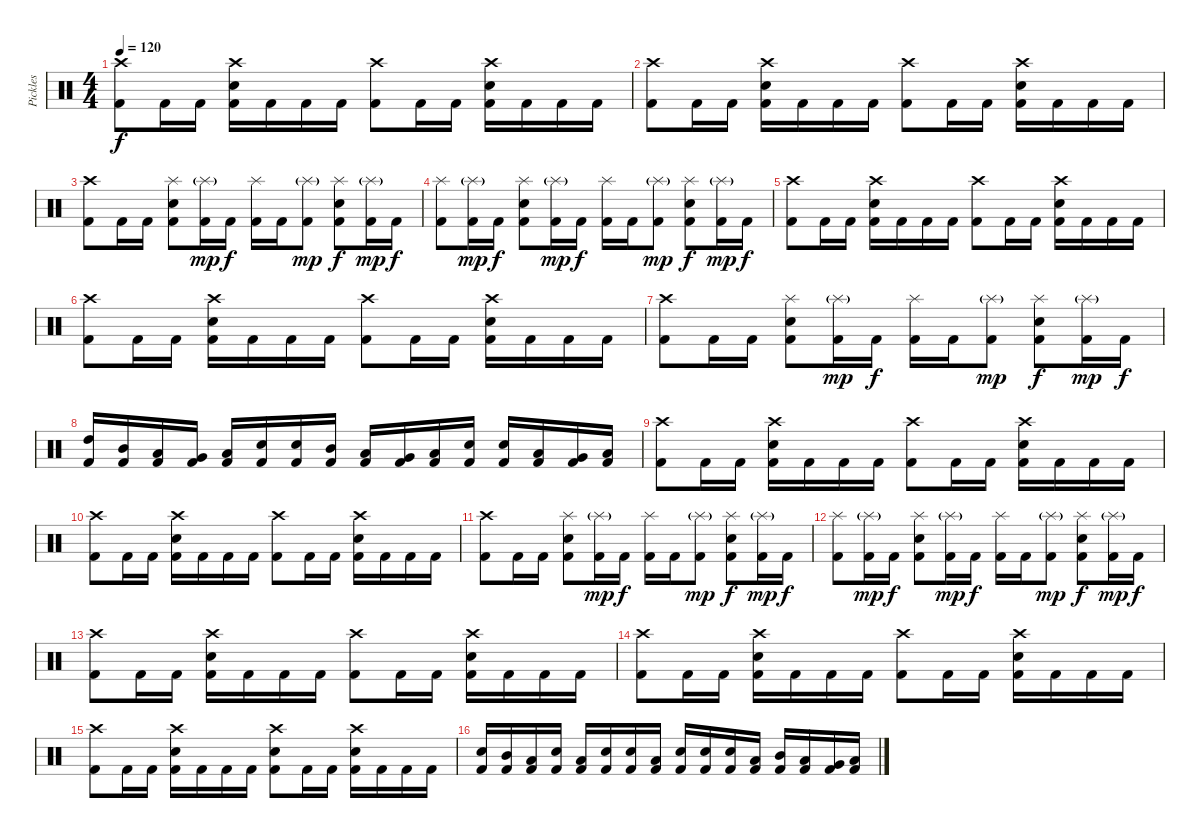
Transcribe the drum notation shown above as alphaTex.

\track ("Pickles" "Pickles") {instrument percussion}
\staff {score}
\articulation defaults
\ts (4 4)
\tempo 120
\clef neutral
\ks c
("Crash high (hit)" "Kick (hit) 2").8{dy f} "Kick (hit) 2".16 "Kick (hit) 2".16 ("Crash high (hit)" "Snare (hit) 2" "Kick (hit) 2").16 "Kick (hit) 2".16 "Kick (hit) 2".16 "Kick (hit) 2".16 ("Crash high (hit)" "Kick (hit) 2").8 "Kick (hit) 2".16 "Kick (hit) 2".16 ("Crash high (hit)" "Snare (hit) 2" "Kick (hit) 2").16 "Kick (hit) 2".16 "Kick (hit) 2".16 "Kick (hit) 2".16 |
("Crash high (hit)" "Kick (hit) 2").8 "Kick (hit) 2".16 "Kick (hit) 2".16 ("Crash high (hit)" "Snare (hit) 2" "Kick (hit) 2").16 "Kick (hit) 2".16 "Kick (hit) 2".16 "Kick (hit) 2".16 ("Crash high (hit)" "Kick (hit) 2").8 "Kick (hit) 2".16 "Kick (hit) 2".16 ("Crash high (hit)" "Snare (hit) 2" "Kick (hit) 2").16 "Kick (hit) 2".16 "Kick (hit) 2".16 "Kick (hit) 2".16 |
("Crash high (hit)" "Kick (hit) 2").8 "Kick (hit) 2".16 "Kick (hit) 2".16 ("Splash (hit)" "Snare (hit) 2" "Kick (hit) 2").8 ("Splash (hit)"{g} "Kick (hit) 2").16{dy mp} "Kick (hit) 2".16{dy f} ("Splash (hit)" "Kick (hit) 2").16 "Kick (hit) 2".16 ("Splash (hit)"{g} "Kick (hit) 2").8{dy mp} ("Splash (hit)" "Snare (hit) 2" "Kick (hit) 2").8{dy f} ("Splash (hit)"{g} "Kick (hit) 2").16{dy mp} "Kick (hit) 2".16{dy f} |
("Splash (hit)" "Kick (hit) 2").8 ("Splash (hit)"{g} "Kick (hit) 2").16{dy mp} "Kick (hit) 2".16{dy f} ("Splash (hit)" "Snare (hit) 2" "Kick (hit) 2").8 ("Splash (hit)"{g} "Kick (hit) 2").16{dy mp} "Kick (hit) 2".16{dy f} ("Splash (hit)" "Kick (hit) 2").16 "Kick (hit) 2".16 ("Splash (hit)"{g} "Kick (hit) 2").8{dy mp} ("Splash (hit)" "Snare (hit) 2" "Kick (hit) 2").8{dy f} ("Splash (hit)"{g} "Kick (hit) 2").16{dy mp} "Kick (hit) 2".16{dy f} |
("Crash high (hit)" "Kick (hit) 2").8 "Kick (hit) 2".16 "Kick (hit) 2".16 ("Crash high (hit)" "Snare (hit) 2" "Kick (hit) 2").16 "Kick (hit) 2".16 "Kick (hit) 2".16 "Kick (hit) 2".16 ("Crash high (hit)" "Kick (hit) 2").8 "Kick (hit) 2".16 "Kick (hit) 2".16 ("Crash high (hit)" "Snare (hit) 2" "Kick (hit) 2").16 "Kick (hit) 2".16 "Kick (hit) 2".16 "Kick (hit) 2".16 |
("Crash high (hit)" "Kick (hit) 2").8 "Kick (hit) 2".16 "Kick (hit) 2".16 ("Crash high (hit)" "Snare (hit) 2" "Kick (hit) 2").16 "Kick (hit) 2".16 "Kick (hit) 2".16 "Kick (hit) 2".16 ("Crash high (hit)" "Kick (hit) 2").8 "Kick (hit) 2".16 "Kick (hit) 2".16 ("Crash high (hit)" "Snare (hit) 2" "Kick (hit) 2").16 "Kick (hit) 2".16 "Kick (hit) 2".16 "Kick (hit) 2".16 |
("Crash high (hit)" "Kick (hit) 2").8 "Kick (hit) 2".16 "Kick (hit) 2".16 ("Splash (hit)" "Snare (hit) 2" "Kick (hit) 2").8 ("Splash (hit)"{g} "Kick (hit) 2").16{dy mp} "Kick (hit) 2".16{dy f} ("Splash (hit)" "Kick (hit) 2").16 "Kick (hit) 2".16 ("Splash (hit)"{g} "Kick (hit) 2").8{dy mp} ("Splash (hit)" "Snare (hit) 2" "Kick (hit) 2").8{dy f} ("Splash (hit)"{g} "Kick (hit) 2").16{dy mp} "Kick (hit) 2".16{dy f} |
("High Tom (hit)" "Kick (hit) 2").16 ("Mid Tom (hit)" "Kick (hit) 2").16 ("Low Tom (hit)" "Kick (hit) 2").16 ("Very Low Tom (hit)" "Kick (hit) 2").16 ("Low Floor Tom (hit)" "Kick (hit) 2").16 ("Snare (hit) 2" "Kick (hit) 2").16 ("Snare (hit) 2" "Kick (hit) 2").16 ("Mid Tom (hit)" "Kick (hit) 2").16 ("Low Tom (hit)" "Kick (hit) 2").16 ("Very Low Tom (hit)" "Kick (hit) 2").16 ("Low Floor Tom (hit)" "Kick (hit) 2").16 ("Snare (hit) 2" "Kick (hit) 2").16 ("Snare (hit) 2" "Kick (hit) 2").16 ("Low Tom (hit)" "Kick (hit) 2").16 ("Very Low Tom (hit)" "Kick (hit) 2").16 ("Low Floor Tom (hit)" "Kick (hit) 2").16 |
("Crash high (hit)" "Kick (hit) 2").8 "Kick (hit) 2".16 "Kick (hit) 2".16 ("Crash high (hit)" "Snare (hit) 2" "Kick (hit) 2").16 "Kick (hit) 2".16 "Kick (hit) 2".16 "Kick (hit) 2".16 ("Crash high (hit)" "Kick (hit) 2").8 "Kick (hit) 2".16 "Kick (hit) 2".16 ("Crash high (hit)" "Snare (hit) 2" "Kick (hit) 2").16 "Kick (hit) 2".16 "Kick (hit) 2".16 "Kick (hit) 2".16 |
("Crash high (hit)" "Kick (hit) 2").8 "Kick (hit) 2".16 "Kick (hit) 2".16 ("Crash high (hit)" "Snare (hit) 2" "Kick (hit) 2").16 "Kick (hit) 2".16 "Kick (hit) 2".16 "Kick (hit) 2".16 ("Crash high (hit)" "Kick (hit) 2").8 "Kick (hit) 2".16 "Kick (hit) 2".16 ("Crash high (hit)" "Snare (hit) 2" "Kick (hit) 2").16 "Kick (hit) 2".16 "Kick (hit) 2".16 "Kick (hit) 2".16 |
("Crash high (hit)" "Kick (hit) 2").8 "Kick (hit) 2".16 "Kick (hit) 2".16 ("Splash (hit)" "Snare (hit) 2" "Kick (hit) 2").8 ("Splash (hit)"{g} "Kick (hit) 2").16{dy mp} "Kick (hit) 2".16{dy f} ("Splash (hit)" "Kick (hit) 2").16 "Kick (hit) 2".16 ("Splash (hit)"{g} "Kick (hit) 2").8{dy mp} ("Splash (hit)" "Snare (hit) 2" "Kick (hit) 2").8{dy f} ("Splash (hit)"{g} "Kick (hit) 2").16{dy mp} "Kick (hit) 2".16{dy f} |
("Splash (hit)" "Kick (hit) 2").8 ("Splash (hit)"{g} "Kick (hit) 2").16{dy mp} "Kick (hit) 2".16{dy f} ("Splash (hit)" "Snare (hit) 2" "Kick (hit) 2").8 ("Splash (hit)"{g} "Kick (hit) 2").16{dy mp} "Kick (hit) 2".16{dy f} ("Splash (hit)" "Kick (hit) 2").16 "Kick (hit) 2".16 ("Splash (hit)"{g} "Kick (hit) 2").8{dy mp} ("Splash (hit)" "Snare (hit) 2" "Kick (hit) 2").8{dy f} ("Splash (hit)"{g} "Kick (hit) 2").16{dy mp} "Kick (hit) 2".16{dy f} |
("Crash high (hit)" "Kick (hit) 2").8 "Kick (hit) 2".16 "Kick (hit) 2".16 ("Crash high (hit)" "Snare (hit) 2" "Kick (hit) 2").16 "Kick (hit) 2".16 "Kick (hit) 2".16 "Kick (hit) 2".16 ("Crash high (hit)" "Kick (hit) 2").8 "Kick (hit) 2".16 "Kick (hit) 2".16 ("Crash high (hit)" "Snare (hit) 2" "Kick (hit) 2").16 "Kick (hit) 2".16 "Kick (hit) 2".16 "Kick (hit) 2".16 |
("Crash high (hit)" "Kick (hit) 2").8 "Kick (hit) 2".16 "Kick (hit) 2".16 ("Crash high (hit)" "Snare (hit) 2" "Kick (hit) 2").16 "Kick (hit) 2".16 "Kick (hit) 2".16 "Kick (hit) 2".16 ("Crash high (hit)" "Kick (hit) 2").8 "Kick (hit) 2".16 "Kick (hit) 2".16 ("Crash high (hit)" "Snare (hit) 2" "Kick (hit) 2").16 "Kick (hit) 2".16 "Kick (hit) 2".16 "Kick (hit) 2".16 |
("Crash high (hit)" "Kick (hit) 2").8 "Kick (hit) 2".16 "Kick (hit) 2".16 ("Crash high (hit)" "Snare (hit) 2" "Kick (hit) 2").16 "Kick (hit) 2".16 "Kick (hit) 2".16 "Kick (hit) 2".16 ("Crash high (hit)" "Snare (hit) 2" "Kick (hit) 2").8 "Kick (hit) 2".16 "Kick (hit) 2".16 ("Crash high (hit)" "Snare (hit) 2" "Kick (hit) 2").16 "Kick (hit) 2".16 "Kick (hit) 2".16 "Kick (hit) 2".16 |
("Snare (hit) 2" "Kick (hit) 2").16 ("Mid Tom (hit)" "Kick (hit) 2").16 ("Low Tom (hit)" "Kick (hit) 2").16 ("Snare (hit) 2" "Kick (hit) 2").16 ("Low Tom (hit)" "Kick (hit) 2").16 ("Snare (hit) 2" "Kick (hit) 2").16 ("Snare (hit) 2" "Kick (hit) 2").16 ("Low Tom (hit)" "Kick (hit) 2").16 ("Snare (hit) 2" "Kick (hit) 2").16 ("Snare (hit) 2" "Kick (hit) 2").16 ("Snare (hit) 2" "Kick (hit) 2").16 ("Low Tom (hit)" "Kick (hit) 2").16 ("Mid Tom (hit)" "Kick (hit) 2").16 ("Low Tom (hit)" "Kick (hit) 2").16 ("Very Low Tom (hit)" "Kick (hit) 2").16 ("Low Floor Tom (hit)" "Kick (hit) 2").16
